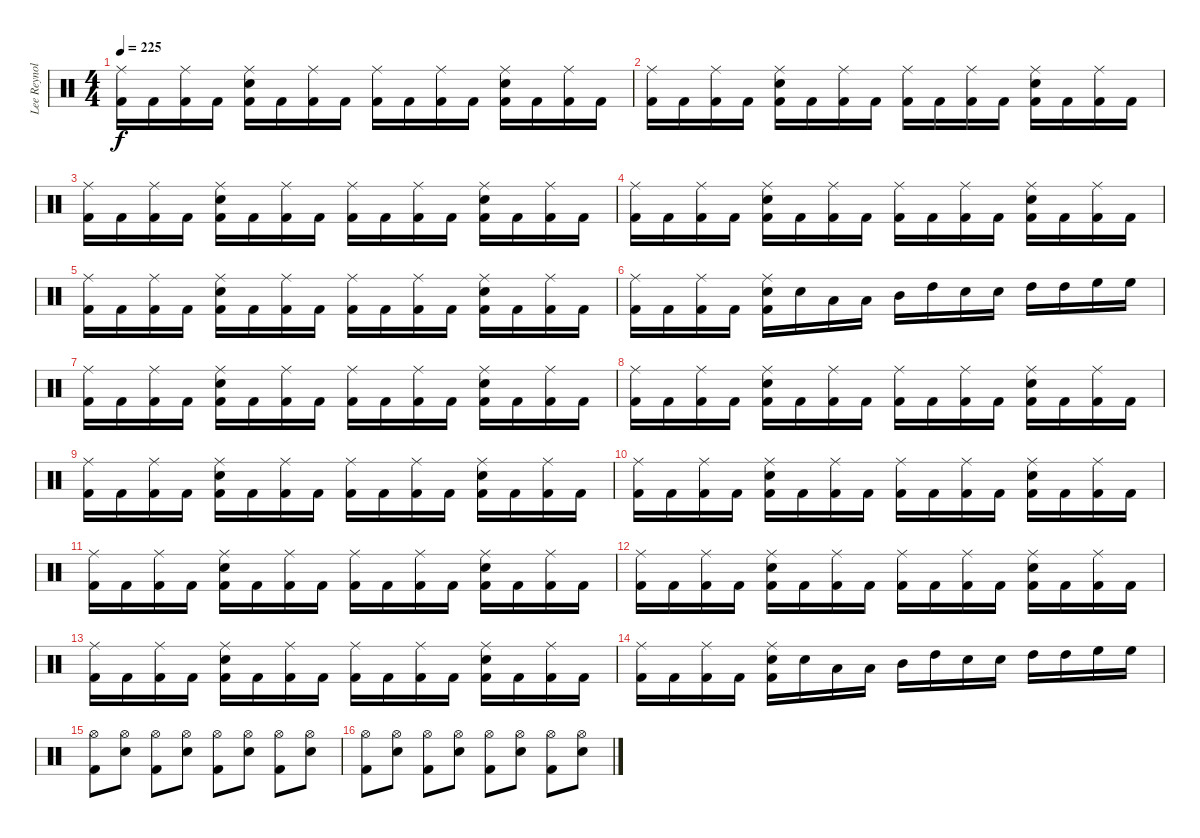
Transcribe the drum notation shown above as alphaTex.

\track ("Lee Reynolds" "Lee Reynol") {instrument percussion}
\staff {score}
\articulation defaults
\ts (4 4)
\tempo 225
\clef neutral
\ks c
("Ride (middle)" "Kick (hit) 2").16{dy f} "Kick (hit) 2".16 ("Ride (middle)" "Kick (hit) 2").16 "Kick (hit) 2".16 ("Ride (middle)" "Snare (hit) 2" "Kick (hit) 2").16 "Kick (hit) 2".16 ("Ride (middle)" "Kick (hit) 2").16 "Kick (hit) 2".16 ("Ride (middle)" "Kick (hit) 2").16 "Kick (hit) 2".16 ("Ride (middle)" "Kick (hit) 2").16 "Kick (hit) 2".16 ("Ride (middle)" "Snare (hit) 2" "Kick (hit) 2").16 "Kick (hit) 2".16 ("Ride (middle)" "Kick (hit) 2").16 "Kick (hit) 2".16 |
("Ride (middle)" "Kick (hit) 2").16 "Kick (hit) 2".16 ("Ride (middle)" "Kick (hit) 2").16 "Kick (hit) 2".16 ("Ride (middle)" "Snare (hit) 2" "Kick (hit) 2").16 "Kick (hit) 2".16 ("Ride (middle)" "Kick (hit) 2").16 "Kick (hit) 2".16 ("Ride (middle)" "Kick (hit) 2").16 "Kick (hit) 2".16 ("Ride (middle)" "Kick (hit) 2").16 "Kick (hit) 2".16 ("Ride (middle)" "Snare (hit) 2" "Kick (hit) 2").16 "Kick (hit) 2".16 ("Ride (middle)" "Kick (hit) 2").16 "Kick (hit) 2".16 |
("Ride (middle)" "Kick (hit) 2").16 "Kick (hit) 2".16 ("Ride (middle)" "Kick (hit) 2").16 "Kick (hit) 2".16 ("Ride (middle)" "Snare (hit) 2" "Kick (hit) 2").16 "Kick (hit) 2".16 ("Ride (middle)" "Kick (hit) 2").16 "Kick (hit) 2".16 ("Ride (middle)" "Kick (hit) 2").16 "Kick (hit) 2".16 ("Ride (middle)" "Kick (hit) 2").16 "Kick (hit) 2".16 ("Ride (middle)" "Snare (hit) 2" "Kick (hit) 2").16 "Kick (hit) 2".16 ("Ride (middle)" "Kick (hit) 2").16 "Kick (hit) 2".16 |
("Ride (middle)" "Kick (hit) 2").16 "Kick (hit) 2".16 ("Ride (middle)" "Kick (hit) 2").16 "Kick (hit) 2".16 ("Ride (middle)" "Snare (hit) 2" "Kick (hit) 2").16 "Kick (hit) 2".16 ("Ride (middle)" "Kick (hit) 2").16 "Kick (hit) 2".16 ("Ride (middle)" "Kick (hit) 2").16 "Kick (hit) 2".16 ("Ride (middle)" "Kick (hit) 2").16 "Kick (hit) 2".16 ("Ride (middle)" "Snare (hit) 2" "Kick (hit) 2").16 "Kick (hit) 2".16 ("Ride (middle)" "Kick (hit) 2").16 "Kick (hit) 2".16 |
("Ride (middle)" "Kick (hit) 2").16 "Kick (hit) 2".16 ("Ride (middle)" "Kick (hit) 2").16 "Kick (hit) 2".16 ("Ride (middle)" "Snare (hit) 2" "Kick (hit) 2").16 "Kick (hit) 2".16 ("Ride (middle)" "Kick (hit) 2").16 "Kick (hit) 2".16 ("Ride (middle)" "Kick (hit) 2").16 "Kick (hit) 2".16 ("Ride (middle)" "Kick (hit) 2").16 "Kick (hit) 2".16 ("Ride (middle)" "Snare (hit) 2" "Kick (hit) 2").16 "Kick (hit) 2".16 ("Ride (middle)" "Kick (hit) 2").16 "Kick (hit) 2".16 |
("Ride (middle)" "Kick (hit) 2").16 "Kick (hit) 2".16 ("Ride (middle)" "Kick (hit) 2").16 "Kick (hit) 2".16 ("Ride (middle)" "Snare (hit) 2" "Kick (hit) 2").16 "Snare (hit) 2".16 "Low Tom (hit)".16 "Low Tom (hit)".16 "Mid Tom (hit)".16 "High Tom (hit)".16 "Snare (hit) 2".16 "Snare (hit) 2".16 "High Tom (hit)".16 "High Tom (hit)".16 "High Floor Tom (hit)".16 "High Floor Tom (hit)".16 |
("Ride (middle)" "Kick (hit) 2").16 "Kick (hit) 2".16 ("Ride (middle)" "Kick (hit) 2").16 "Kick (hit) 2".16 ("Ride (middle)" "Snare (hit) 2" "Kick (hit) 2").16 "Kick (hit) 2".16 ("Ride (middle)" "Kick (hit) 2").16 "Kick (hit) 2".16 ("Ride (middle)" "Kick (hit) 2").16 "Kick (hit) 2".16 ("Ride (middle)" "Kick (hit) 2").16 "Kick (hit) 2".16 ("Ride (middle)" "Snare (hit) 2" "Kick (hit) 2").16 "Kick (hit) 2".16 ("Ride (middle)" "Kick (hit) 2").16 "Kick (hit) 2".16 |
("Ride (middle)" "Kick (hit) 2").16 "Kick (hit) 2".16 ("Ride (middle)" "Kick (hit) 2").16 "Kick (hit) 2".16 ("Ride (middle)" "Snare (hit) 2" "Kick (hit) 2").16 "Kick (hit) 2".16 ("Ride (middle)" "Kick (hit) 2").16 "Kick (hit) 2".16 ("Ride (middle)" "Kick (hit) 2").16 "Kick (hit) 2".16 ("Ride (middle)" "Kick (hit) 2").16 "Kick (hit) 2".16 ("Ride (middle)" "Snare (hit) 2" "Kick (hit) 2").16 "Kick (hit) 2".16 ("Ride (middle)" "Kick (hit) 2").16 "Kick (hit) 2".16 |
("Ride (middle)" "Kick (hit) 2").16 "Kick (hit) 2".16 ("Ride (middle)" "Kick (hit) 2").16 "Kick (hit) 2".16 ("Ride (middle)" "Snare (hit) 2" "Kick (hit) 2").16 "Kick (hit) 2".16 ("Ride (middle)" "Kick (hit) 2").16 "Kick (hit) 2".16 ("Ride (middle)" "Kick (hit) 2").16 "Kick (hit) 2".16 ("Ride (middle)" "Kick (hit) 2").16 "Kick (hit) 2".16 ("Ride (middle)" "Snare (hit) 2" "Kick (hit) 2").16 "Kick (hit) 2".16 ("Ride (middle)" "Kick (hit) 2").16 "Kick (hit) 2".16 |
("Ride (middle)" "Kick (hit) 2").16 "Kick (hit) 2".16 ("Ride (middle)" "Kick (hit) 2").16 "Kick (hit) 2".16 ("Ride (middle)" "Snare (hit) 2" "Kick (hit) 2").16 "Kick (hit) 2".16 ("Ride (middle)" "Kick (hit) 2").16 "Kick (hit) 2".16 ("Ride (middle)" "Kick (hit) 2").16 "Kick (hit) 2".16 ("Ride (middle)" "Kick (hit) 2").16 "Kick (hit) 2".16 ("Ride (middle)" "Snare (hit) 2" "Kick (hit) 2").16 "Kick (hit) 2".16 ("Ride (middle)" "Kick (hit) 2").16 "Kick (hit) 2".16 |
("Ride (middle)" "Kick (hit) 2").16 "Kick (hit) 2".16 ("Ride (middle)" "Kick (hit) 2").16 "Kick (hit) 2".16 ("Ride (middle)" "Snare (hit) 2" "Kick (hit) 2").16 "Kick (hit) 2".16 ("Ride (middle)" "Kick (hit) 2").16 "Kick (hit) 2".16 ("Ride (middle)" "Kick (hit) 2").16 "Kick (hit) 2".16 ("Ride (middle)" "Kick (hit) 2").16 "Kick (hit) 2".16 ("Ride (middle)" "Snare (hit) 2" "Kick (hit) 2").16 "Kick (hit) 2".16 ("Ride (middle)" "Kick (hit) 2").16 "Kick (hit) 2".16 |
("Ride (middle)" "Kick (hit) 2").16 "Kick (hit) 2".16 ("Ride (middle)" "Kick (hit) 2").16 "Kick (hit) 2".16 ("Ride (middle)" "Snare (hit) 2" "Kick (hit) 2").16 "Kick (hit) 2".16 ("Ride (middle)" "Kick (hit) 2").16 "Kick (hit) 2".16 ("Ride (middle)" "Kick (hit) 2").16 "Kick (hit) 2".16 ("Ride (middle)" "Kick (hit) 2").16 "Kick (hit) 2".16 ("Ride (middle)" "Snare (hit) 2" "Kick (hit) 2").16 "Kick (hit) 2".16 ("Ride (middle)" "Kick (hit) 2").16 "Kick (hit) 2".16 |
("Ride (middle)" "Kick (hit) 2").16 "Kick (hit) 2".16 ("Ride (middle)" "Kick (hit) 2").16 "Kick (hit) 2".16 ("Ride (middle)" "Snare (hit) 2" "Kick (hit) 2").16 "Kick (hit) 2".16 ("Ride (middle)" "Kick (hit) 2").16 "Kick (hit) 2".16 ("Ride (middle)" "Kick (hit) 2").16 "Kick (hit) 2".16 ("Ride (middle)" "Kick (hit) 2").16 "Kick (hit) 2".16 ("Ride (middle)" "Snare (hit) 2" "Kick (hit) 2").16 "Kick (hit) 2".16 ("Ride (middle)" "Kick (hit) 2").16 "Kick (hit) 2".16 |
("Ride (middle)" "Kick (hit) 2").16 "Kick (hit) 2".16 ("Ride (middle)" "Kick (hit) 2").16 "Kick (hit) 2".16 ("Ride (middle)" "Snare (hit) 2" "Kick (hit) 2").16 "Snare (hit) 2".16 "Low Tom (hit)".16 "Low Tom (hit)".16 "Mid Tom (hit)".16 "High Tom (hit)".16 "Snare (hit) 2".16 "Snare (hit) 2".16 "High Tom (hit)".16 "High Tom (hit)".16 "High Floor Tom (hit)".16 "High Floor Tom (hit)".16 |
("Hi-Hat (open)" "Kick (hit) 2").8 ("Hi-Hat (open)" "Snare (hit) 2").8 ("Hi-Hat (open)" "Kick (hit) 2").8 ("Hi-Hat (open)" "Snare (hit) 2").8 ("Hi-Hat (open)" "Kick (hit) 2").8 ("Hi-Hat (open)" "Snare (hit) 2").8 ("Hi-Hat (open)" "Kick (hit) 2").8 ("Hi-Hat (open)" "Snare (hit) 2").8 |
("Hi-Hat (open)" "Kick (hit) 2").8 ("Hi-Hat (open)" "Snare (hit) 2").8 ("Hi-Hat (open)" "Kick (hit) 2").8 ("Hi-Hat (open)" "Snare (hit) 2").8 ("Hi-Hat (open)" "Kick (hit) 2").8 ("Hi-Hat (open)" "Snare (hit) 2").8 ("Hi-Hat (open)" "Kick (hit) 2").8 ("Hi-Hat (open)" "Snare (hit) 2").8
